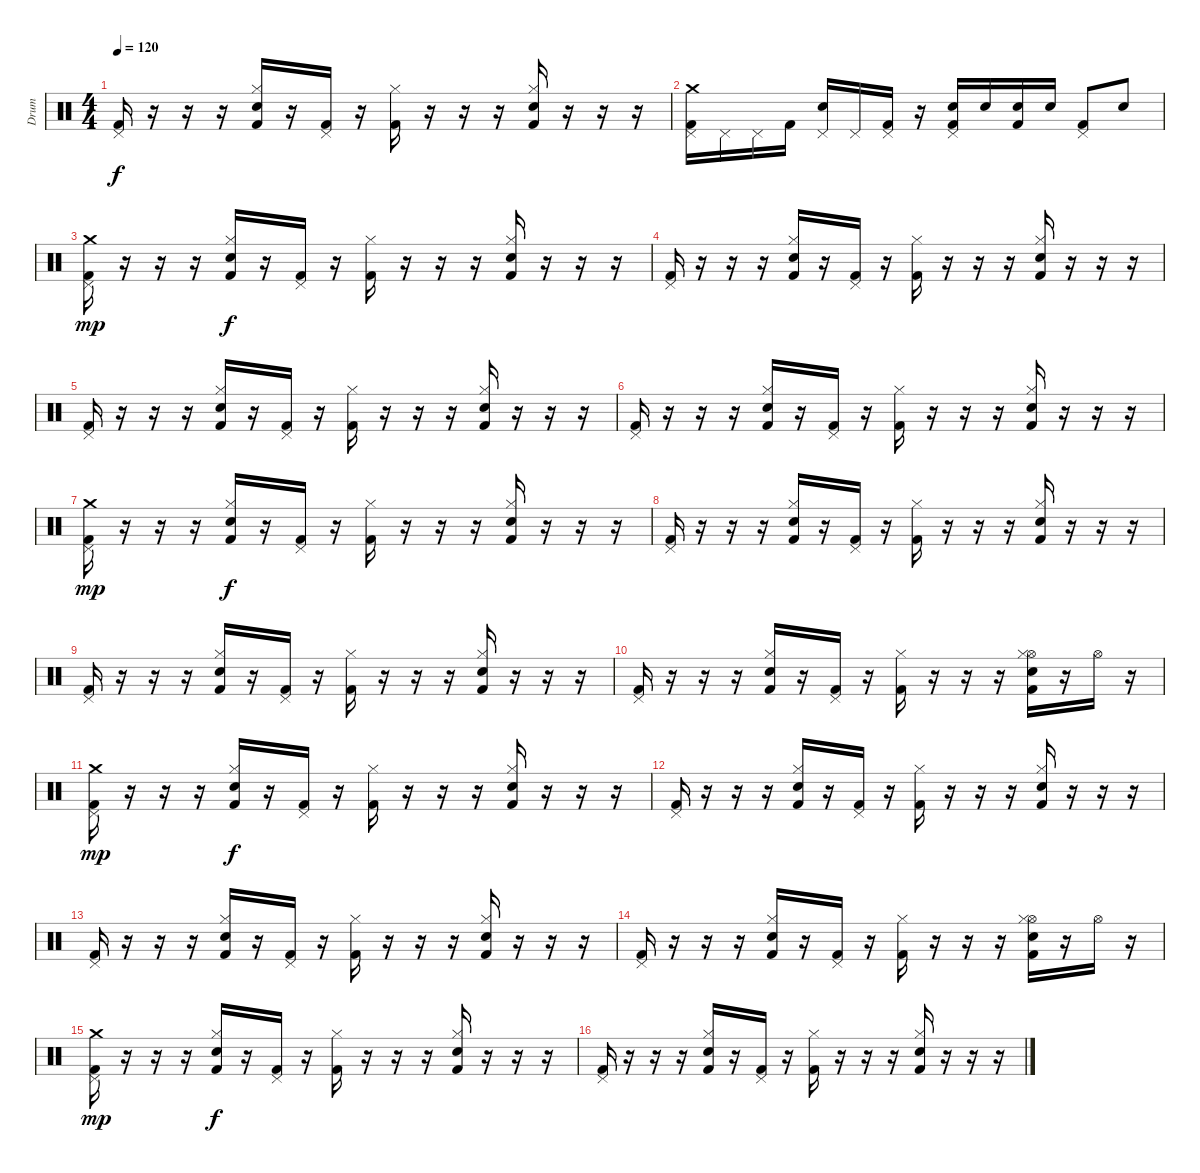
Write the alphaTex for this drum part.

\track ("Drum" "Drum") {instrument percussion}
\staff {score}
\articulation defaults
\ts (4 4)
\tempo 120
\clef neutral
\ks c
("Pedal Hi-Hat (hit)" "Kick (hit) 2").16{dy f} r.16 r.16 r.16 ("Hi-Hat (closed)" "Snare (hit) 2" "Kick (hit) 2").16 r.16 ("Pedal Hi-Hat (hit)" "Kick (hit) 2").16 r.16 ("Hi-Hat (closed)" "Kick (hit) 2").16 r.16 r.16 r.16 ("Hi-Hat (closed)" "Snare (hit) 2" "Kick (hit) 2").16 r.16 r.16 r.16 |
("Crash medium (hit)" "Pedal Hi-Hat (hit)" "Kick (hit) 2").16 "Pedal Hi-Hat (hit)".16 "Pedal Hi-Hat (hit)".16 "Kick (hit) 2".16 ("Pedal Hi-Hat (hit)" "Snare (hit) 2").16 "Pedal Hi-Hat (hit)".16 ("Pedal Hi-Hat (hit)" "Kick (hit) 2").16 r.16 ("Pedal Hi-Hat (hit)" "Snare (hit) 2" "Kick (hit) 2").16 "Snare (hit) 2".16 ("Snare (hit) 2" "Kick (hit) 2").16 "Snare (hit) 2".16 ("Pedal Hi-Hat (hit)" "Kick (hit) 2").8 "Snare (hit) 2".8 |
("Crash medium (hit)" "Pedal Hi-Hat (hit)" "Kick (hit) 2").16{dy mp} r.16 r.16 r.16 ("Hi-Hat (closed)" "Snare (hit) 2" "Kick (hit) 2").16{dy f} r.16 ("Pedal Hi-Hat (hit)" "Kick (hit) 2").16 r.16 ("Hi-Hat (closed)" "Kick (hit) 2").16 r.16 r.16 r.16 ("Hi-Hat (closed)" "Snare (hit) 2" "Kick (hit) 2").16 r.16 r.16 r.16 |
("Pedal Hi-Hat (hit)" "Kick (hit) 2").16 r.16 r.16 r.16 ("Hi-Hat (closed)" "Snare (hit) 2" "Kick (hit) 2").16 r.16 ("Pedal Hi-Hat (hit)" "Kick (hit) 2").16 r.16 ("Hi-Hat (closed)" "Kick (hit) 2").16 r.16 r.16 r.16 ("Hi-Hat (closed)" "Snare (hit) 2" "Kick (hit) 2").16 r.16 r.16 r.16 |
("Pedal Hi-Hat (hit)" "Kick (hit) 2").16 r.16 r.16 r.16 ("Hi-Hat (closed)" "Snare (hit) 2" "Kick (hit) 2").16 r.16 ("Pedal Hi-Hat (hit)" "Kick (hit) 2").16 r.16 ("Hi-Hat (closed)" "Kick (hit) 2").16 r.16 r.16 r.16 ("Hi-Hat (closed)" "Snare (hit) 2" "Kick (hit) 2").16 r.16 r.16 r.16 |
("Pedal Hi-Hat (hit)" "Kick (hit) 2").16 r.16 r.16 r.16 ("Hi-Hat (closed)" "Snare (hit) 2" "Kick (hit) 2").16 r.16 ("Pedal Hi-Hat (hit)" "Kick (hit) 2").16 r.16 ("Hi-Hat (closed)" "Kick (hit) 2").16 r.16 r.16 r.16 ("Hi-Hat (closed)" "Snare (hit) 2" "Kick (hit) 2").16 r.16 r.16 r.16 |
("Crash medium (hit)" "Pedal Hi-Hat (hit)" "Kick (hit) 2").16{dy mp} r.16 r.16 r.16 ("Hi-Hat (closed)" "Snare (hit) 2" "Kick (hit) 2").16{dy f} r.16 ("Pedal Hi-Hat (hit)" "Kick (hit) 2").16 r.16 ("Hi-Hat (closed)" "Kick (hit) 2").16 r.16 r.16 r.16 ("Hi-Hat (closed)" "Snare (hit) 2" "Kick (hit) 2").16 r.16 r.16 r.16 |
("Pedal Hi-Hat (hit)" "Kick (hit) 2").16 r.16 r.16 r.16 ("Hi-Hat (closed)" "Snare (hit) 2" "Kick (hit) 2").16 r.16 ("Pedal Hi-Hat (hit)" "Kick (hit) 2").16 r.16 ("Hi-Hat (closed)" "Kick (hit) 2").16 r.16 r.16 r.16 ("Hi-Hat (closed)" "Snare (hit) 2" "Kick (hit) 2").16 r.16 r.16 r.16 |
("Pedal Hi-Hat (hit)" "Kick (hit) 2").16 r.16 r.16 r.16 ("Hi-Hat (closed)" "Snare (hit) 2" "Kick (hit) 2").16 r.16 ("Pedal Hi-Hat (hit)" "Kick (hit) 2").16 r.16 ("Hi-Hat (closed)" "Kick (hit) 2").16 r.16 r.16 r.16 ("Hi-Hat (closed)" "Snare (hit) 2" "Kick (hit) 2").16 r.16 r.16 r.16 |
("Pedal Hi-Hat (hit)" "Kick (hit) 2").16 r.16 r.16 r.16 ("Hi-Hat (closed)" "Snare (hit) 2" "Kick (hit) 2").16 r.16 ("Pedal Hi-Hat (hit)" "Kick (hit) 2").16 r.16 ("Hi-Hat (closed)" "Kick (hit) 2").16 r.16 r.16 r.16 ("Hi-Hat (open)" "Hi-Hat (closed)" "Snare (hit) 2" "Kick (hit) 2").16 r.16 "Hi-Hat (open)".16 r.16 |
("Crash medium (hit)" "Pedal Hi-Hat (hit)" "Kick (hit) 2").16{dy mp} r.16 r.16 r.16 ("Hi-Hat (closed)" "Snare (hit) 2" "Kick (hit) 2").16{dy f} r.16 ("Pedal Hi-Hat (hit)" "Kick (hit) 2").16 r.16 ("Hi-Hat (closed)" "Kick (hit) 2").16 r.16 r.16 r.16 ("Hi-Hat (closed)" "Snare (hit) 2" "Kick (hit) 2").16 r.16 r.16 r.16 |
("Pedal Hi-Hat (hit)" "Kick (hit) 2").16 r.16 r.16 r.16 ("Hi-Hat (closed)" "Snare (hit) 2" "Kick (hit) 2").16 r.16 ("Pedal Hi-Hat (hit)" "Kick (hit) 2").16 r.16 ("Hi-Hat (closed)" "Kick (hit) 2").16 r.16 r.16 r.16 ("Hi-Hat (closed)" "Snare (hit) 2" "Kick (hit) 2").16 r.16 r.16 r.16 |
("Pedal Hi-Hat (hit)" "Kick (hit) 2").16 r.16 r.16 r.16 ("Hi-Hat (closed)" "Snare (hit) 2" "Kick (hit) 2").16 r.16 ("Pedal Hi-Hat (hit)" "Kick (hit) 2").16 r.16 ("Hi-Hat (closed)" "Kick (hit) 2").16 r.16 r.16 r.16 ("Hi-Hat (closed)" "Snare (hit) 2" "Kick (hit) 2").16 r.16 r.16 r.16 |
("Pedal Hi-Hat (hit)" "Kick (hit) 2").16 r.16 r.16 r.16 ("Hi-Hat (closed)" "Snare (hit) 2" "Kick (hit) 2").16 r.16 ("Pedal Hi-Hat (hit)" "Kick (hit) 2").16 r.16 ("Hi-Hat (closed)" "Kick (hit) 2").16 r.16 r.16 r.16 ("Hi-Hat (open)" "Hi-Hat (closed)" "Snare (hit) 2" "Kick (hit) 2").16 r.16 "Hi-Hat (open)".16 r.16 |
("Crash medium (hit)" "Pedal Hi-Hat (hit)" "Kick (hit) 2").16{dy mp} r.16 r.16 r.16 ("Hi-Hat (closed)" "Snare (hit) 2" "Kick (hit) 2").16{dy f} r.16 ("Pedal Hi-Hat (hit)" "Kick (hit) 2").16 r.16 ("Hi-Hat (closed)" "Kick (hit) 2").16 r.16 r.16 r.16 ("Hi-Hat (closed)" "Snare (hit) 2" "Kick (hit) 2").16 r.16 r.16 r.16 |
("Pedal Hi-Hat (hit)" "Kick (hit) 2").16 r.16 r.16 r.16 ("Hi-Hat (closed)" "Snare (hit) 2" "Kick (hit) 2").16 r.16 ("Pedal Hi-Hat (hit)" "Kick (hit) 2").16 r.16 ("Hi-Hat (closed)" "Kick (hit) 2").16 r.16 r.16 r.16 ("Hi-Hat (closed)" "Snare (hit) 2" "Kick (hit) 2").16 r.16 r.16 r.16
